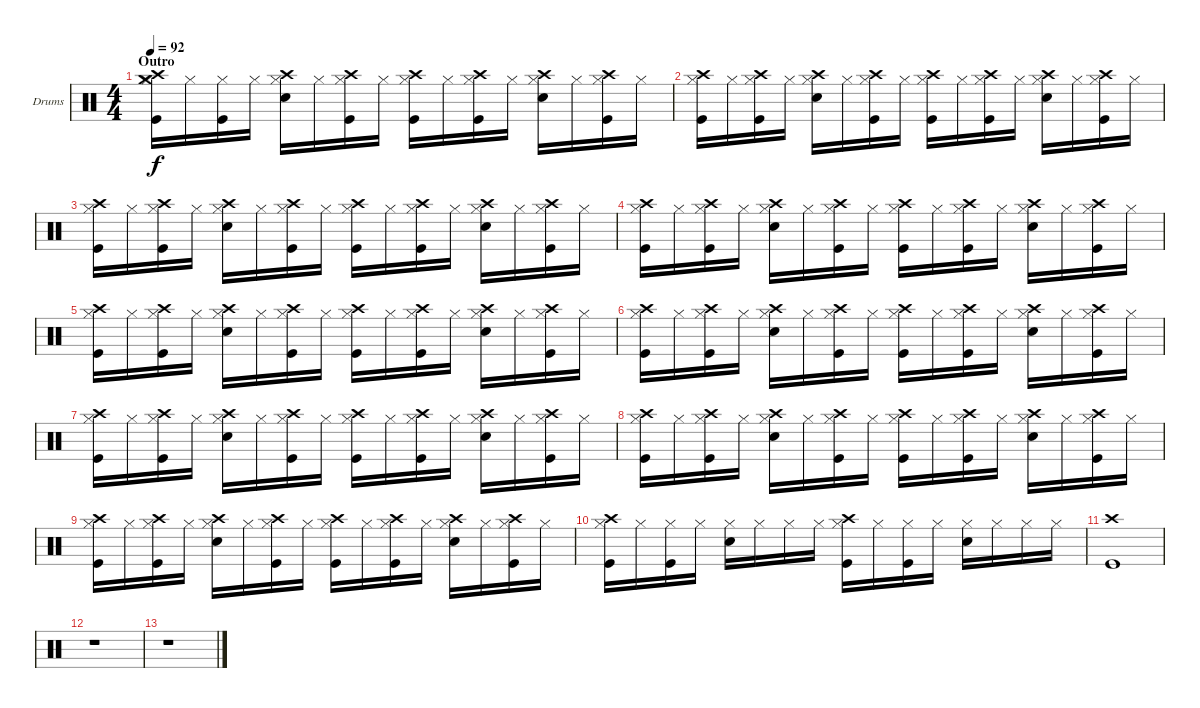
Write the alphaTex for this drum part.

\bracketExtendMode groupsimilarinstruments
\firstSystemTrackNameOrientation horizontal
\otherSystemsTrackNameOrientation horizontal
\track ("Drumkit" "Drums") {instrument percussion}
\staff {score}
\articulation defaults
\ts (4 4)
\section ("" "Outro")
\tempo 92
\clef neutral
\ks c
("Hi-Hat (closed)" "Crash high (hit)" "Crash medium (hit)" "Kick (hit)").16{dy f} "Hi-Hat (closed)".16 ("Hi-Hat (closed)" "Kick (hit)").16 "Hi-Hat (closed)".16 ("Hi-Hat (closed)" "Crash high (hit)" "Snare (hit) 2").16 "Hi-Hat (closed)".16 ("Hi-Hat (closed)" "Crash high (hit)" "Kick (hit)").16 "Hi-Hat (closed)".16 ("Hi-Hat (closed)" "Crash high (hit)" "Kick (hit)").16 "Hi-Hat (closed)".16 ("Hi-Hat (closed)" "Crash high (hit)" "Kick (hit)").16 "Hi-Hat (closed)".16 ("Hi-Hat (closed)" "Crash high (hit)" "Snare (hit) 2").16 "Hi-Hat (closed)".16 ("Hi-Hat (closed)" "Crash high (hit)" "Kick (hit)").16 "Hi-Hat (closed)".16 |
("Hi-Hat (closed)" "Crash high (hit)" "Kick (hit)").16 "Hi-Hat (closed)".16 ("Hi-Hat (closed)" "Crash high (hit)" "Kick (hit)").16 "Hi-Hat (closed)".16 ("Hi-Hat (closed)" "Crash high (hit)" "Snare (hit) 2").16 "Hi-Hat (closed)".16 ("Hi-Hat (closed)" "Crash high (hit)" "Kick (hit)").16 "Hi-Hat (closed)".16 ("Hi-Hat (closed)" "Crash high (hit)" "Kick (hit)").16 "Hi-Hat (closed)".16 ("Hi-Hat (closed)" "Crash high (hit)" "Kick (hit)").16 "Hi-Hat (closed)".16 ("Hi-Hat (closed)" "Crash high (hit)" "Snare (hit) 2").16 "Hi-Hat (closed)".16 ("Hi-Hat (closed)" "Crash high (hit)" "Kick (hit)").16 "Hi-Hat (closed)".16 |
("Hi-Hat (closed)" "Crash high (hit)" "Kick (hit)").16 "Hi-Hat (closed)".16 ("Hi-Hat (closed)" "Crash high (hit)" "Kick (hit)").16 "Hi-Hat (closed)".16 ("Hi-Hat (closed)" "Crash high (hit)" "Snare (hit) 2").16 "Hi-Hat (closed)".16 ("Hi-Hat (closed)" "Crash high (hit)" "Kick (hit)").16 "Hi-Hat (closed)".16 ("Hi-Hat (closed)" "Crash high (hit)" "Kick (hit)").16 "Hi-Hat (closed)".16 ("Hi-Hat (closed)" "Crash high (hit)" "Kick (hit)").16 "Hi-Hat (closed)".16 ("Hi-Hat (closed)" "Crash high (hit)" "Snare (hit) 2").16 "Hi-Hat (closed)".16 ("Hi-Hat (closed)" "Crash high (hit)" "Kick (hit)").16 "Hi-Hat (closed)".16 |
("Hi-Hat (closed)" "Crash high (hit)" "Kick (hit)").16 "Hi-Hat (closed)".16 ("Hi-Hat (closed)" "Crash high (hit)" "Kick (hit)").16 "Hi-Hat (closed)".16 ("Hi-Hat (closed)" "Crash high (hit)" "Snare (hit) 2").16 "Hi-Hat (closed)".16 ("Hi-Hat (closed)" "Crash high (hit)" "Kick (hit)").16 "Hi-Hat (closed)".16 ("Hi-Hat (closed)" "Crash high (hit)" "Kick (hit)").16 "Hi-Hat (closed)".16 ("Hi-Hat (closed)" "Crash high (hit)" "Kick (hit)").16 "Hi-Hat (closed)".16 ("Hi-Hat (closed)" "Crash high (hit)" "Snare (hit) 2").16 "Hi-Hat (closed)".16 ("Hi-Hat (closed)" "Crash high (hit)" "Kick (hit)").16 "Hi-Hat (closed)".16 |
("Hi-Hat (closed)" "Crash high (hit)" "Kick (hit)").16 "Hi-Hat (closed)".16 ("Hi-Hat (closed)" "Crash high (hit)" "Kick (hit)").16 "Hi-Hat (closed)".16 ("Hi-Hat (closed)" "Crash high (hit)" "Snare (hit) 2").16 "Hi-Hat (closed)".16 ("Hi-Hat (closed)" "Crash high (hit)" "Kick (hit)").16 "Hi-Hat (closed)".16 ("Hi-Hat (closed)" "Crash high (hit)" "Kick (hit)").16 "Hi-Hat (closed)".16 ("Hi-Hat (closed)" "Crash high (hit)" "Kick (hit)").16 "Hi-Hat (closed)".16 ("Hi-Hat (closed)" "Crash high (hit)" "Snare (hit) 2").16 "Hi-Hat (closed)".16 ("Hi-Hat (closed)" "Crash high (hit)" "Kick (hit)").16 "Hi-Hat (closed)".16 |
("Hi-Hat (closed)" "Crash high (hit)" "Kick (hit)").16 "Hi-Hat (closed)".16 ("Hi-Hat (closed)" "Crash high (hit)" "Kick (hit)").16 "Hi-Hat (closed)".16 ("Hi-Hat (closed)" "Crash high (hit)" "Snare (hit) 2").16 "Hi-Hat (closed)".16 ("Hi-Hat (closed)" "Crash high (hit)" "Kick (hit)").16 "Hi-Hat (closed)".16 ("Hi-Hat (closed)" "Crash high (hit)" "Kick (hit)").16 "Hi-Hat (closed)".16 ("Hi-Hat (closed)" "Crash high (hit)" "Kick (hit)").16 "Hi-Hat (closed)".16 ("Hi-Hat (closed)" "Crash high (hit)" "Snare (hit) 2").16 "Hi-Hat (closed)".16 ("Hi-Hat (closed)" "Crash high (hit)" "Kick (hit)").16 "Hi-Hat (closed)".16 |
("Hi-Hat (closed)" "Crash high (hit)" "Kick (hit)").16 "Hi-Hat (closed)".16 ("Hi-Hat (closed)" "Crash high (hit)" "Kick (hit)").16 "Hi-Hat (closed)".16 ("Hi-Hat (closed)" "Crash high (hit)" "Snare (hit) 2").16 "Hi-Hat (closed)".16 ("Hi-Hat (closed)" "Crash high (hit)" "Kick (hit)").16 "Hi-Hat (closed)".16 ("Hi-Hat (closed)" "Crash high (hit)" "Kick (hit)").16 "Hi-Hat (closed)".16 ("Hi-Hat (closed)" "Crash high (hit)" "Kick (hit)").16 "Hi-Hat (closed)".16 ("Hi-Hat (closed)" "Crash high (hit)" "Snare (hit) 2").16 "Hi-Hat (closed)".16 ("Hi-Hat (closed)" "Crash high (hit)" "Kick (hit)").16 "Hi-Hat (closed)".16 |
("Hi-Hat (closed)" "Crash high (hit)" "Kick (hit)").16 "Hi-Hat (closed)".16 ("Hi-Hat (closed)" "Crash high (hit)" "Kick (hit)").16 "Hi-Hat (closed)".16 ("Hi-Hat (closed)" "Crash high (hit)" "Snare (hit) 2").16 "Hi-Hat (closed)".16 ("Hi-Hat (closed)" "Crash high (hit)" "Kick (hit)").16 "Hi-Hat (closed)".16 ("Hi-Hat (closed)" "Crash high (hit)" "Kick (hit)").16 "Hi-Hat (closed)".16 ("Hi-Hat (closed)" "Crash high (hit)" "Kick (hit)").16 "Hi-Hat (closed)".16 ("Hi-Hat (closed)" "Crash high (hit)" "Snare (hit) 2").16 "Hi-Hat (closed)".16 ("Hi-Hat (closed)" "Crash high (hit)" "Kick (hit)").16 "Hi-Hat (closed)".16 |
("Hi-Hat (closed)" "Crash high (hit)" "Kick (hit)").16 "Hi-Hat (closed)".16 ("Hi-Hat (closed)" "Crash high (hit)" "Kick (hit)").16 "Hi-Hat (closed)".16 ("Hi-Hat (closed)" "Crash high (hit)" "Snare (hit) 2").16 "Hi-Hat (closed)".16 ("Hi-Hat (closed)" "Crash high (hit)" "Kick (hit)").16 "Hi-Hat (closed)".16 ("Hi-Hat (closed)" "Crash high (hit)" "Kick (hit)").16 "Hi-Hat (closed)".16 ("Hi-Hat (closed)" "Crash high (hit)" "Kick (hit)").16 "Hi-Hat (closed)".16 ("Hi-Hat (closed)" "Crash high (hit)" "Snare (hit) 2").16 "Hi-Hat (closed)".16 ("Hi-Hat (closed)" "Crash high (hit)" "Kick (hit)").16 "Hi-Hat (closed)".16 |
("Hi-Hat (closed)" "Crash high (hit)" "Kick (hit)").16 "Hi-Hat (closed)".16 ("Hi-Hat (closed)" "Kick (hit)").16 "Hi-Hat (closed)".16 ("Hi-Hat (closed)" "Snare (hit) 2").16 "Hi-Hat (closed)".16 "Hi-Hat (closed)".16 "Hi-Hat (closed)".16 ("Hi-Hat (closed)" "Crash high (hit)" "Kick (hit)").16 "Hi-Hat (closed)".16 ("Hi-Hat (closed)" "Kick (hit)").16 "Hi-Hat (closed)".16 ("Hi-Hat (closed)" "Snare (hit) 2").16 "Hi-Hat (closed)".16 "Hi-Hat (closed)".16 "Hi-Hat (closed)".16 |
("Crash high (hit)" "Kick (hit)").1 |
r.1 |
r.1
